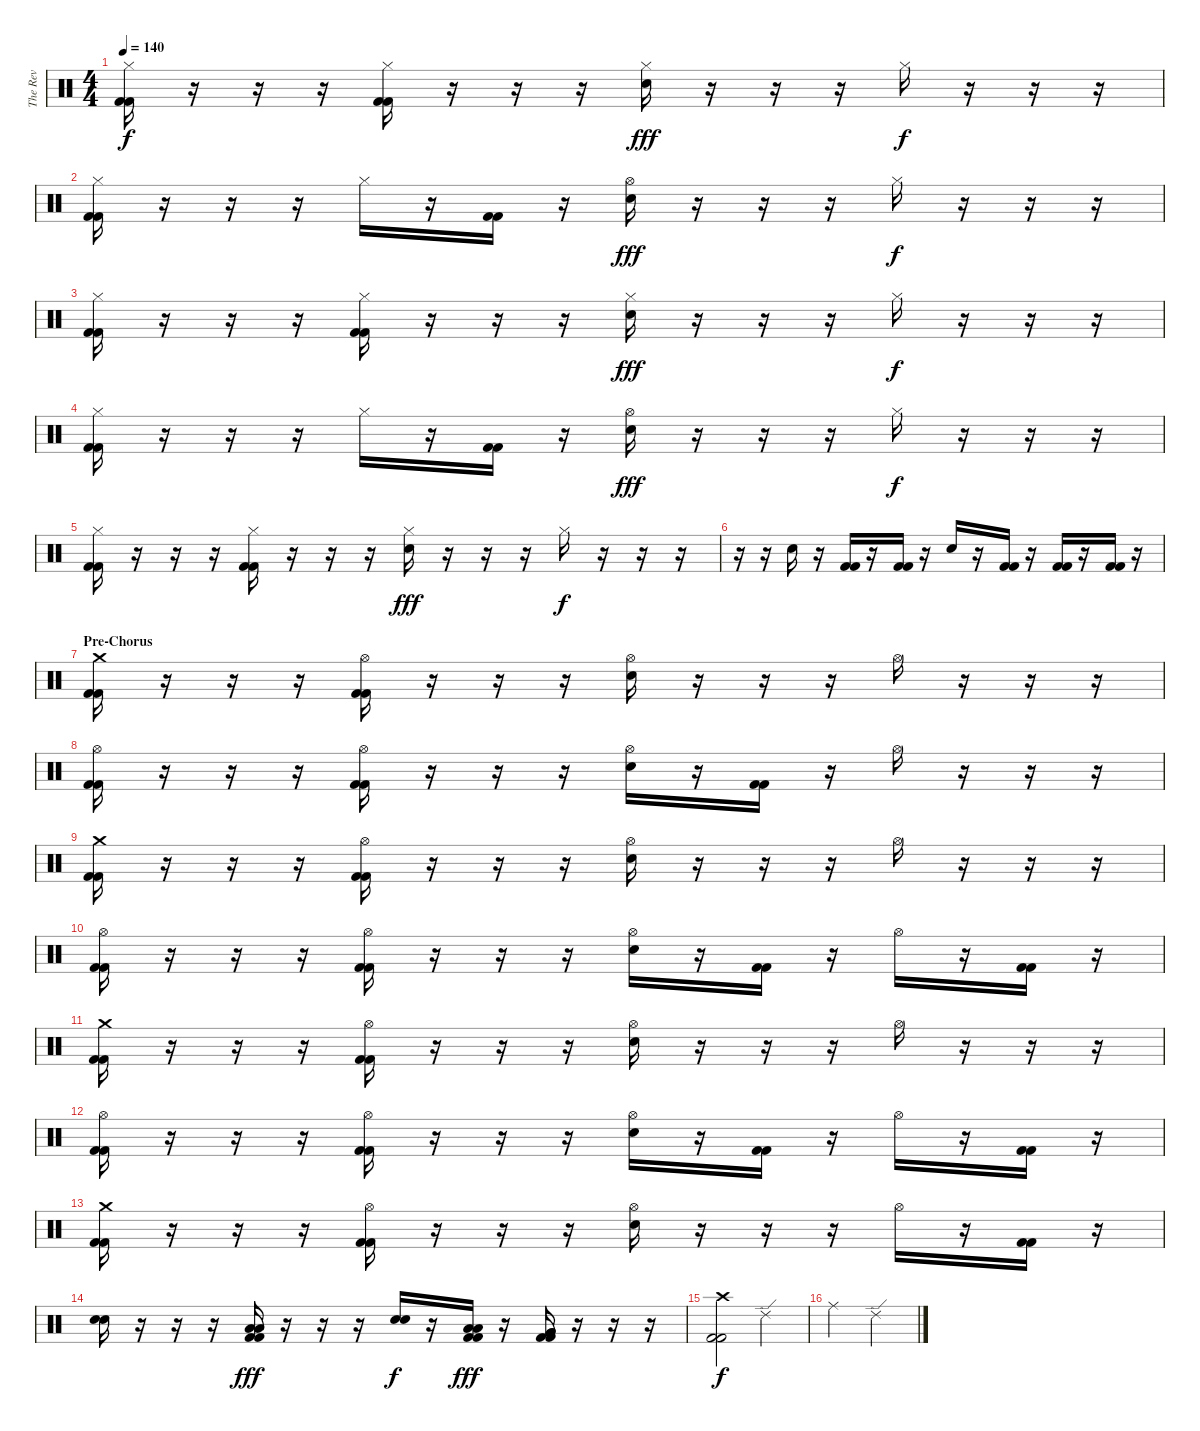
\track ("The Rev" "The Rev") {instrument percussion}
\staff {score}
\articulation defaults
\ts (4 4)
\tempo 140
\clef neutral
\ks c
("Hi-Hat (closed)" "Kick (hit) 2" "Kick (hit) 2").16{dy f} r.16 r.16 r.16 ("Hi-Hat (closed)" "Kick (hit) 2" "Kick (hit) 2").16 r.16 r.16 r.16 ("Hi-Hat (closed)" "Electric Snare (hit)").16{dy fff} r.16 r.16 r.16 "Hi-Hat (closed)".16{dy f} r.16 r.16 r.16 |
("Hi-Hat (closed)" "Kick (hit) 2" "Kick (hit) 2").16 r.16 r.16 r.16 "Hi-Hat (closed)".16 r.16 ("Kick (hit) 2" "Kick (hit) 2").16 r.16 ("Hi-Hat (open)" "Electric Snare (hit)").16{dy fff} r.16 r.16 r.16 "Hi-Hat (closed)".16{dy f} r.16 r.16 r.16 |
("Hi-Hat (closed)" "Kick (hit) 2" "Kick (hit) 2").16 r.16 r.16 r.16 ("Hi-Hat (closed)" "Kick (hit) 2" "Kick (hit) 2").16 r.16 r.16 r.16 ("Hi-Hat (closed)" "Electric Snare (hit)").16{dy fff} r.16 r.16 r.16 "Hi-Hat (closed)".16{dy f} r.16 r.16 r.16 |
("Hi-Hat (closed)" "Kick (hit) 2" "Kick (hit) 2").16 r.16 r.16 r.16 "Hi-Hat (closed)".16 r.16 ("Kick (hit) 2" "Kick (hit) 2").16 r.16 ("Hi-Hat (open)" "Electric Snare (hit)").16{dy fff} r.16 r.16 r.16 "Hi-Hat (closed)".16{dy f} r.16 r.16 r.16 |
("Hi-Hat (closed)" "Kick (hit) 2" "Kick (hit) 2").16 r.16 r.16 r.16 ("Hi-Hat (closed)" "Kick (hit) 2" "Kick (hit) 2").16 r.16 r.16 r.16 ("Hi-Hat (closed)" "Electric Snare (hit)").16{dy fff} r.16 r.16 r.16 "Hi-Hat (closed)".16{dy f} r.16 r.16 r.16 |
r.16 r.16 "Electric Snare (hit)".16 r.16 ("Kick (hit) 2" "Kick (hit) 2").16 r.16 ("Kick (hit) 2" "Kick (hit) 2").16 r.16 "Electric Snare (hit)".16 r.16 ("Kick (hit) 2" "Kick (hit) 2").16 r.16 ("Kick (hit) 2" "Kick (hit) 2").16 r.16 ("Kick (hit) 2" "Kick (hit) 2").16 r.16 |
\section ("" "Pre-Chorus")
("Crash medium (hit)" "Kick (hit) 2" "Kick (hit) 2").16 r.16 r.16 r.16 ("Hi-Hat (open)" "Kick (hit) 2" "Kick (hit) 2").16 r.16 r.16 r.16 ("Hi-Hat (open)" "Electric Snare (hit)").16 r.16 r.16 r.16 "Hi-Hat (open)".16 r.16 r.16 r.16 |
("Hi-Hat (open)" "Kick (hit) 2" "Kick (hit) 2").16 r.16 r.16 r.16 ("Hi-Hat (open)" "Kick (hit) 2" "Kick (hit) 2").16 r.16 r.16 r.16 ("Hi-Hat (open)" "Electric Snare (hit)").16 r.16 ("Kick (hit) 2" "Kick (hit) 2").16 r.16 "Hi-Hat (open)".16 r.16 r.16 r.16 |
("Crash medium (hit)" "Kick (hit) 2" "Kick (hit) 2").16 r.16 r.16 r.16 ("Hi-Hat (open)" "Kick (hit) 2" "Kick (hit) 2").16 r.16 r.16 r.16 ("Hi-Hat (open)" "Electric Snare (hit)").16 r.16 r.16 r.16 "Hi-Hat (open)".16 r.16 r.16 r.16 |
("Hi-Hat (open)" "Kick (hit) 2" "Kick (hit) 2").16 r.16 r.16 r.16 ("Hi-Hat (open)" "Kick (hit) 2" "Kick (hit) 2").16 r.16 r.16 r.16 ("Hi-Hat (open)" "Electric Snare (hit)").16 r.16 ("Kick (hit) 2" "Kick (hit) 2").16 r.16 "Hi-Hat (open)".16 r.16 ("Kick (hit) 2" "Kick (hit) 2").16 r.16 |
("Crash medium (hit)" "Kick (hit) 2" "Kick (hit) 2").16 r.16 r.16 r.16 ("Hi-Hat (open)" "Kick (hit) 2" "Kick (hit) 2").16 r.16 r.16 r.16 ("Hi-Hat (open)" "Electric Snare (hit)").16 r.16 r.16 r.16 "Hi-Hat (open)".16 r.16 r.16 r.16 |
("Hi-Hat (open)" "Kick (hit) 2" "Kick (hit) 2").16 r.16 r.16 r.16 ("Hi-Hat (open)" "Kick (hit) 2" "Kick (hit) 2").16 r.16 r.16 r.16 ("Hi-Hat (open)" "Electric Snare (hit)").16 r.16 ("Kick (hit) 2" "Kick (hit) 2").16 r.16 "Hi-Hat (open)".16 r.16 ("Kick (hit) 2" "Kick (hit) 2").16 r.16 |
("Crash medium (hit)" "Kick (hit) 2" "Kick (hit) 2").16 r.16 r.16 r.16 ("Hi-Hat (open)" "Kick (hit) 2" "Kick (hit) 2").16 r.16 r.16 r.16 ("Hi-Hat (open)" "Electric Snare (hit)").16 r.16 r.16 r.16 "Hi-Hat (open)".16 r.16 ("Kick (hit) 2" "Kick (hit) 2").16 r.16 |
("Electric Snare (hit)" "Electric Snare (hit)").16 r.16 r.16 r.16 ("Low Tom (hit)" "Low Tom (hit)" "Kick (hit) 2" "Kick (hit) 2").16{dy fff} r.16 r.16 r.16 ("Electric Snare (hit)" "Electric Snare (hit)").16{dy f} r.16 ("Low Tom (hit)" "Low Tom (hit)" "Kick (hit) 2" "Kick (hit) 2").16{dy fff} r.16 ("Very Low Tom (hit)" "Very Low Tom (hit)" "Kick (hit) 2" "Kick (hit) 2").16 r.16 r.16 r.16 |
("Crash high (hit)" "Kick (hit) 2" "Kick (hit) 2").2{dy f} "Ride (edge) 2".2 |
"Ride (middle)".2 "Ride (edge) 2".2
